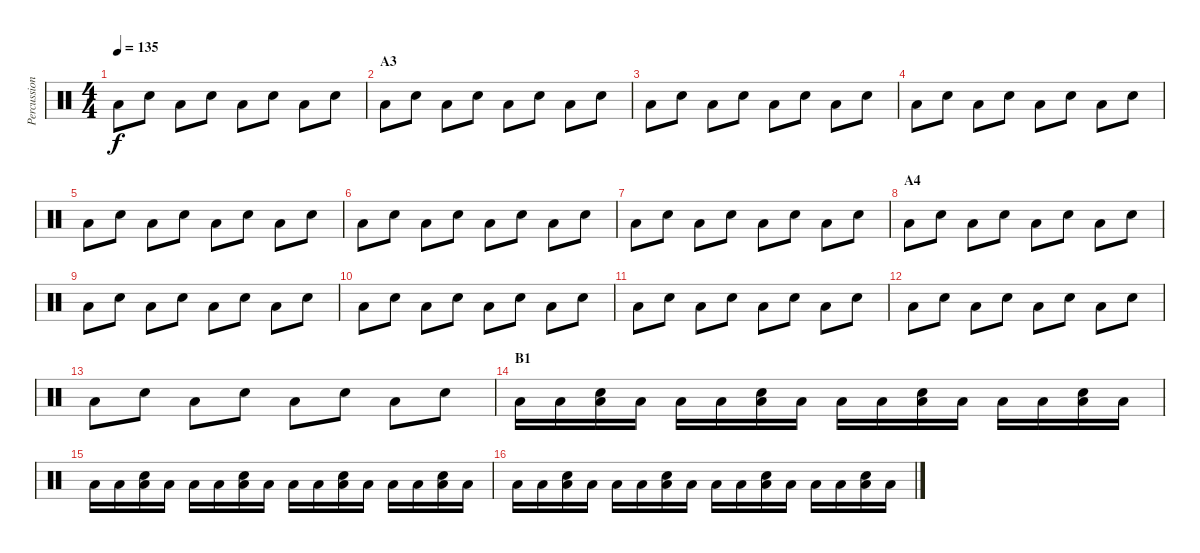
\track ("Percussion" "Percussion") {instrument percussion}
\staff {score}
\articulation defaults
\ts (4 4)
\tempo 135
\clef neutral
\ks c "Low Floor Tom (hit)".8{dy f} "Electric Snare (hit)".8 "Low Floor Tom (hit)".8 "Electric Snare (hit)".8 "Low Floor Tom (hit)".8 "Electric Snare (hit)".8 "Low Floor Tom (hit)".8 "Electric Snare (hit)".8
|
\section ("" "A3")
"Low Floor Tom (hit)".8 "Electric Snare (hit)".8 "Low Floor Tom (hit)".8 "Electric Snare (hit)".8 "Low Floor Tom (hit)".8 "Electric Snare (hit)".8 "Low Floor Tom (hit)".8 "Electric Snare (hit)".8 |
"Low Floor Tom (hit)".8 "Electric Snare (hit)".8 "Low Floor Tom (hit)".8 "Electric Snare (hit)".8 "Low Floor Tom (hit)".8 "Electric Snare (hit)".8 "Low Floor Tom (hit)".8 "Electric Snare (hit)".8 |
"Low Floor Tom (hit)".8 "Electric Snare (hit)".8 "Low Floor Tom (hit)".8 "Electric Snare (hit)".8 "Low Floor Tom (hit)".8 "Electric Snare (hit)".8 "Low Floor Tom (hit)".8 "Electric Snare (hit)".8 |
"Low Floor Tom (hit)".8 "Electric Snare (hit)".8 "Low Floor Tom (hit)".8 "Electric Snare (hit)".8 "Low Floor Tom (hit)".8 "Electric Snare (hit)".8 "Low Floor Tom (hit)".8 "Electric Snare (hit)".8 |
"Low Floor Tom (hit)".8 "Electric Snare (hit)".8 "Low Floor Tom (hit)".8 "Electric Snare (hit)".8 "Low Floor Tom (hit)".8 "Electric Snare (hit)".8 "Low Floor Tom (hit)".8 "Electric Snare (hit)".8 |
"Low Floor Tom (hit)".8 "Electric Snare (hit)".8 "Low Floor Tom (hit)".8 "Electric Snare (hit)".8 "Low Floor Tom (hit)".8 "Electric Snare (hit)".8 "Low Floor Tom (hit)".8 "Electric Snare (hit)".8 |
\section ("" "A4")
"Low Floor Tom (hit)".8 "Electric Snare (hit)".8 "Low Floor Tom (hit)".8 "Electric Snare (hit)".8 "Low Floor Tom (hit)".8 "Electric Snare (hit)".8 "Low Floor Tom (hit)".8 "Electric Snare (hit)".8 |
"Low Floor Tom (hit)".8 "Electric Snare (hit)".8 "Low Floor Tom (hit)".8 "Electric Snare (hit)".8 "Low Floor Tom (hit)".8 "Electric Snare (hit)".8 "Low Floor Tom (hit)".8 "Electric Snare (hit)".8 |
"Low Floor Tom (hit)".8 "Electric Snare (hit)".8 "Low Floor Tom (hit)".8 "Electric Snare (hit)".8 "Low Floor Tom (hit)".8 "Electric Snare (hit)".8 "Low Floor Tom (hit)".8 "Electric Snare (hit)".8 |
"Low Floor Tom (hit)".8 "Electric Snare (hit)".8 "Low Floor Tom (hit)".8 "Electric Snare (hit)".8 "Low Floor Tom (hit)".8 "Electric Snare (hit)".8 "Low Floor Tom (hit)".8 "Electric Snare (hit)".8 |
"Low Floor Tom (hit)".8 "Electric Snare (hit)".8 "Low Floor Tom (hit)".8 "Electric Snare (hit)".8 "Low Floor Tom (hit)".8 "Electric Snare (hit)".8 "Low Floor Tom (hit)".8 "Electric Snare (hit)".8 |
"Low Floor Tom (hit)".8 "Electric Snare (hit)".8 "Low Floor Tom (hit)".8 "Electric Snare (hit)".8 "Low Floor Tom (hit)".8 "Electric Snare (hit)".8 "Low Floor Tom (hit)".8 "Electric Snare (hit)".8 |
\section ("" "B1")
"Low Floor Tom (hit)".16 "Low Floor Tom (hit)".16 ("Low Floor Tom (hit)" "Electric Snare (hit)").16 "Low Floor Tom (hit)".16 "Low Floor Tom (hit)".16 "Low Floor Tom (hit)".16 ("Low Floor Tom (hit)" "Electric Snare (hit)").16 "Low Floor Tom (hit)".16 "Low Floor Tom (hit)".16 "Low Floor Tom (hit)".16 ("Low Floor Tom (hit)" "Electric Snare (hit)").16 "Low Floor Tom (hit)".16 "Low Floor Tom (hit)".16 "Low Floor Tom (hit)".16 ("Low Floor Tom (hit)" "Electric Snare (hit)").16 "Low Floor Tom (hit)".16 |
"Low Floor Tom (hit)".16 "Low Floor Tom (hit)".16 ("Low Floor Tom (hit)" "Electric Snare (hit)").16 "Low Floor Tom (hit)".16 "Low Floor Tom (hit)".16 "Low Floor Tom (hit)".16 ("Low Floor Tom (hit)" "Electric Snare (hit)").16 "Low Floor Tom (hit)".16 "Low Floor Tom (hit)".16 "Low Floor Tom (hit)".16 ("Low Floor Tom (hit)" "Electric Snare (hit)").16 "Low Floor Tom (hit)".16 "Low Floor Tom (hit)".16 "Low Floor Tom (hit)".16 ("Low Floor Tom (hit)" "Electric Snare (hit)").16 "Low Floor Tom (hit)".16 |
"Low Floor Tom (hit)".16 "Low Floor Tom (hit)".16 ("Low Floor Tom (hit)" "Electric Snare (hit)").16 "Low Floor Tom (hit)".16 "Low Floor Tom (hit)".16 "Low Floor Tom (hit)".16 ("Low Floor Tom (hit)" "Electric Snare (hit)").16 "Low Floor Tom (hit)".16 "Low Floor Tom (hit)".16 "Low Floor Tom (hit)".16 ("Low Floor Tom (hit)" "Electric Snare (hit)").16 "Low Floor Tom (hit)".16 "Low Floor Tom (hit)".16 "Low Floor Tom (hit)".16 ("Low Floor Tom (hit)" "Electric Snare (hit)").16 "Low Floor Tom (hit)".16
